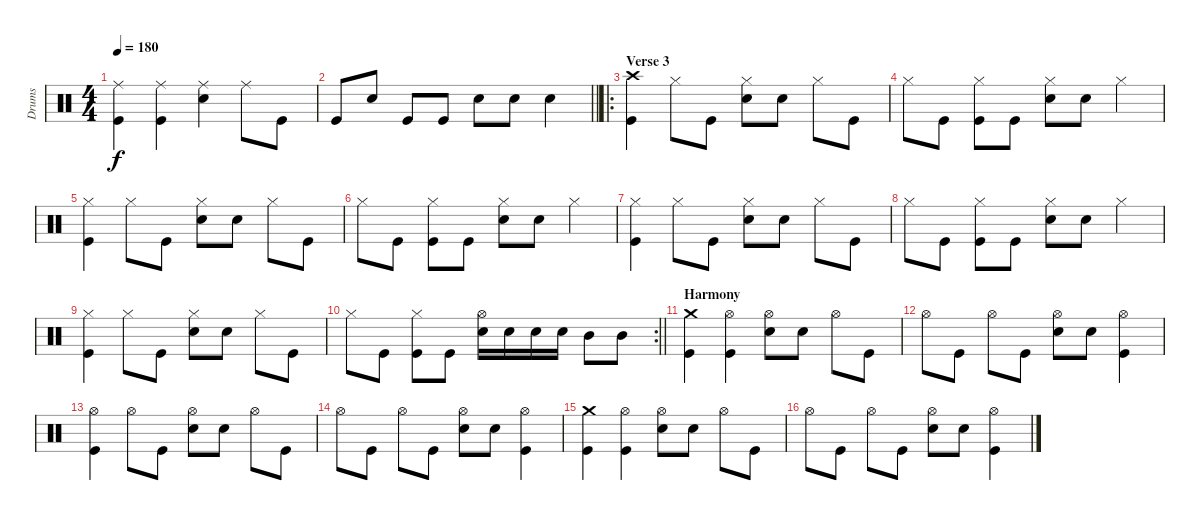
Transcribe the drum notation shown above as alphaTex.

\track ("Drums" "Drums") {instrument percussion}
\staff {score}
\articulation defaults
\ts (4 4)
\tempo 180
\clef neutral
\ks c
("Ride (middle)" "Kick (hit)").4{dy f} ("Ride (middle)" "Kick (hit)").4 ("Ride (middle)" "Snare (hit) 2").4 "Ride (middle)".8 "Kick (hit)".8 |
\barLineRight lightlight "Kick (hit)".8 "Snare (hit) 2".8 "Kick (hit)".8 "Kick (hit)".8 "Snare (hit) 2".8 "Snare (hit) 2".8 "Snare (hit) 2".4
|
\ro
\section ("" "Verse 3")
("Crash high (hit)" "Kick (hit)").4 "Hi-Hat (closed)".8 "Kick (hit)".8 ("Hi-Hat (closed)" "Snare (hit) 2").8 "Snare (hit) 2".8 "Hi-Hat (closed)".8 "Kick (hit)".8 |
"Hi-Hat (closed)".8 "Kick (hit)".8 ("Hi-Hat (closed)" "Kick (hit)").8 "Kick (hit)".8 ("Hi-Hat (closed)" "Snare (hit) 2").8 "Snare (hit) 2".8 "Hi-Hat (closed)".4 |
("Hi-Hat (closed)" "Kick (hit)").4 "Hi-Hat (closed)".8 "Kick (hit)".8 ("Hi-Hat (closed)" "Snare (hit) 2").8 "Snare (hit) 2".8 "Hi-Hat (closed)".8 "Kick (hit)".8 |
"Hi-Hat (closed)".8 "Kick (hit)".8 ("Hi-Hat (closed)" "Kick (hit)").8 "Kick (hit)".8 ("Hi-Hat (closed)" "Snare (hit) 2").8 "Snare (hit) 2".8 "Hi-Hat (closed)".4 |
("Hi-Hat (closed)" "Kick (hit)").4 "Hi-Hat (closed)".8 "Kick (hit)".8 ("Hi-Hat (closed)" "Snare (hit) 2").8 "Snare (hit) 2".8 "Hi-Hat (closed)".8 "Kick (hit)".8 |
"Hi-Hat (closed)".8 "Kick (hit)".8 ("Hi-Hat (closed)" "Kick (hit)").8 "Kick (hit)".8 ("Hi-Hat (closed)" "Snare (hit) 2").8 "Snare (hit) 2".8 "Hi-Hat (closed)".4 |
("Hi-Hat (closed)" "Kick (hit)").4 "Hi-Hat (closed)".8 "Kick (hit)".8 ("Hi-Hat (closed)" "Snare (hit) 2").8 "Snare (hit) 2".8 "Hi-Hat (closed)".8 "Kick (hit)".8 |
\rc 2
\barLineRight lightlight "Hi-Hat (closed)".8 "Kick (hit)".8
("Hi-Hat (closed)" "Kick (hit)").8 "Kick (hit)".8 ("Hi-Hat (open)" "Snare (hit) 2").16 "Snare (hit) 2".16 "Snare (hit) 2".16 "Snare (hit) 2".16 "Mid Tom (hit)".8 "Mid Tom (hit)".8 |
\section ("" "Harmony")
("Crash medium (hit)" "Kick (hit)").4 ("Hi-Hat (open)" "Kick (hit)").4 ("Hi-Hat (open)" "Snare (hit) 2").8 "Snare (hit) 2".8 "Hi-Hat (open)".8 "Kick (hit)".8 |
"Hi-Hat (open)".8 "Kick (hit)".8 "Hi-Hat (open)".8 "Kick (hit)".8 ("Hi-Hat (open)" "Snare (hit) 2").8 "Snare (hit) 2".8 ("Hi-Hat (open)" "Kick (hit)").4 |
("Hi-Hat (open)" "Kick (hit)").4 "Hi-Hat (open)".8 "Kick (hit)".8 ("Hi-Hat (open)" "Snare (hit) 2").8 "Snare (hit) 2".8 "Hi-Hat (open)".8 "Kick (hit)".8 |
"Hi-Hat (open)".8 "Kick (hit)".8 "Hi-Hat (open)".8 "Kick (hit)".8 ("Hi-Hat (open)" "Snare (hit) 2").8 "Snare (hit) 2".8 ("Hi-Hat (open)" "Kick (hit)").4 |
("Crash medium (hit)" "Kick (hit)").4 ("Hi-Hat (open)" "Kick (hit)").4 ("Hi-Hat (open)" "Snare (hit) 2").8 "Snare (hit) 2".8 "Hi-Hat (open)".8 "Kick (hit)".8 |
"Hi-Hat (open)".8 "Kick (hit)".8 "Hi-Hat (open)".8 "Kick (hit)".8 ("Hi-Hat (open)" "Snare (hit) 2").8 "Snare (hit) 2".8 ("Hi-Hat (open)" "Kick (hit)").4
